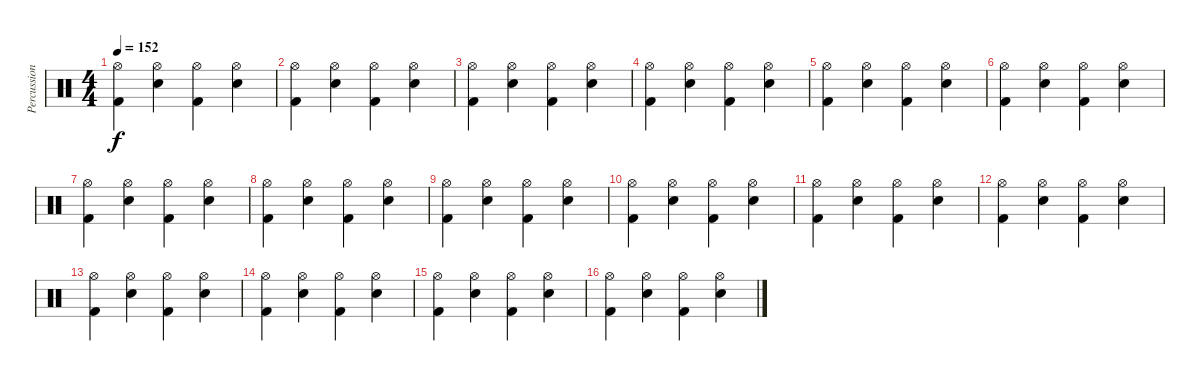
\track ("Percussion" "Percussion") {instrument percussion}
\staff {score}
\articulation defaults
\ts (4 4)
\tempo 152
\clef neutral
\ks c
("Hi-Hat (open)" "Kick (hit) 2").4{dy f} ("Hi-Hat (open)" "Electric Snare (hit)").4 ("Hi-Hat (open)" "Kick (hit) 2").4 ("Hi-Hat (open)" "Electric Snare (hit)").4 |
("Hi-Hat (open)" "Kick (hit) 2").4 ("Hi-Hat (open)" "Electric Snare (hit)").4 ("Hi-Hat (open)" "Kick (hit) 2").4 ("Hi-Hat (open)" "Electric Snare (hit)").4 |
("Hi-Hat (open)" "Kick (hit) 2").4 ("Hi-Hat (open)" "Electric Snare (hit)").4 ("Hi-Hat (open)" "Kick (hit) 2").4 ("Hi-Hat (open)" "Electric Snare (hit)").4 |
("Hi-Hat (open)" "Kick (hit) 2").4 ("Hi-Hat (open)" "Electric Snare (hit)").4 ("Hi-Hat (open)" "Kick (hit) 2").4 ("Hi-Hat (open)" "Electric Snare (hit)").4 |
("Hi-Hat (open)" "Kick (hit) 2").4 ("Hi-Hat (open)" "Electric Snare (hit)").4 ("Hi-Hat (open)" "Kick (hit) 2").4 ("Hi-Hat (open)" "Electric Snare (hit)").4 |
("Hi-Hat (open)" "Kick (hit) 2").4 ("Hi-Hat (open)" "Electric Snare (hit)").4 ("Hi-Hat (open)" "Kick (hit) 2").4 ("Hi-Hat (open)" "Electric Snare (hit)").4 |
("Hi-Hat (open)" "Kick (hit) 2").4 ("Hi-Hat (open)" "Electric Snare (hit)").4 ("Hi-Hat (open)" "Kick (hit) 2").4 ("Hi-Hat (open)" "Electric Snare (hit)").4 |
("Hi-Hat (open)" "Kick (hit) 2").4 ("Hi-Hat (open)" "Electric Snare (hit)").4 ("Hi-Hat (open)" "Kick (hit) 2").4 ("Hi-Hat (open)" "Electric Snare (hit)").4 |
("Hi-Hat (open)" "Kick (hit) 2").4 ("Hi-Hat (open)" "Electric Snare (hit)").4 ("Hi-Hat (open)" "Kick (hit) 2").4 ("Hi-Hat (open)" "Electric Snare (hit)").4 |
("Hi-Hat (open)" "Kick (hit) 2").4 ("Hi-Hat (open)" "Electric Snare (hit)").4 ("Hi-Hat (open)" "Kick (hit) 2").4 ("Hi-Hat (open)" "Electric Snare (hit)").4 |
("Hi-Hat (open)" "Kick (hit) 2").4 ("Hi-Hat (open)" "Electric Snare (hit)").4 ("Hi-Hat (open)" "Kick (hit) 2").4 ("Hi-Hat (open)" "Electric Snare (hit)").4 |
("Hi-Hat (open)" "Kick (hit) 2").4 ("Hi-Hat (open)" "Electric Snare (hit)").4 ("Hi-Hat (open)" "Kick (hit) 2").4 ("Hi-Hat (open)" "Electric Snare (hit)").4 |
("Hi-Hat (open)" "Kick (hit) 2").4 ("Hi-Hat (open)" "Electric Snare (hit)").4 ("Hi-Hat (open)" "Kick (hit) 2").4 ("Hi-Hat (open)" "Electric Snare (hit)").4 |
("Hi-Hat (open)" "Kick (hit) 2").4 ("Hi-Hat (open)" "Electric Snare (hit)").4 ("Hi-Hat (open)" "Kick (hit) 2").4 ("Hi-Hat (open)" "Electric Snare (hit)").4 |
("Hi-Hat (open)" "Kick (hit) 2").4 ("Hi-Hat (open)" "Electric Snare (hit)").4 ("Hi-Hat (open)" "Kick (hit) 2").4 ("Hi-Hat (open)" "Electric Snare (hit)").4 |
("Hi-Hat (open)" "Kick (hit) 2").4 ("Hi-Hat (open)" "Electric Snare (hit)").4 ("Hi-Hat (open)" "Kick (hit) 2").4 ("Hi-Hat (open)" "Electric Snare (hit)").4
